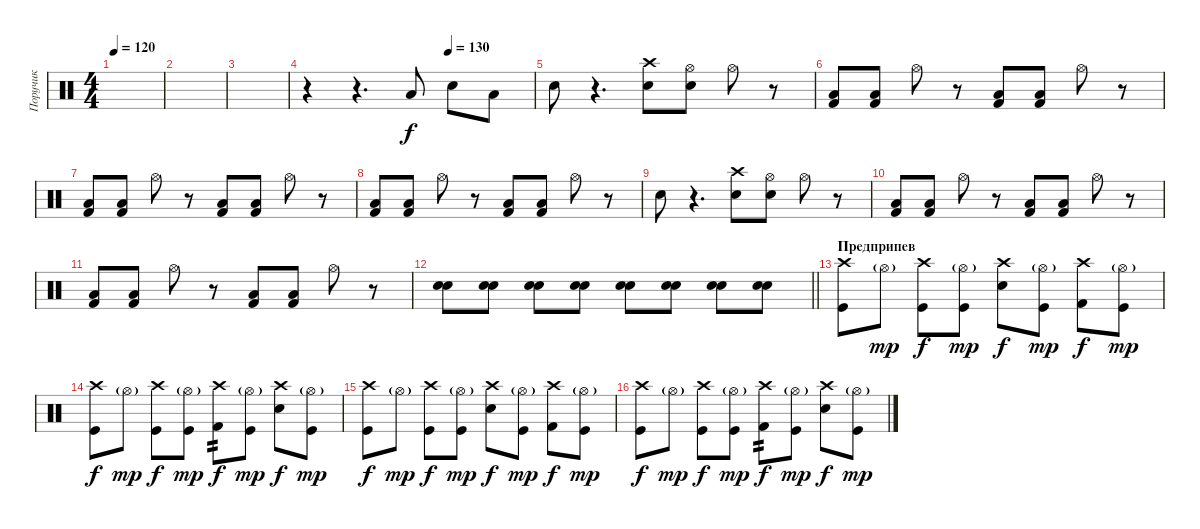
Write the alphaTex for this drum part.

\track ("Поручик" "Поручик") {instrument percussion}
\staff {score}
\articulation defaults
\ts (4 4)
\tempo 120
\clef neutral
\ks c
|
|
|
\tempo (130 0.625)
r.4 r.4{d} "Low Floor Tom (hit)".8 "Snare (hit) 2".8 "Low Floor Tom (hit)".8 |
"Snare (hit) 2".8 r.4{d} ("Snare (hit) 2" "Crash high (hit)").8 ("Snare (hit) 2" "Hi-Hat (open)").8 "Hi-Hat (open)".8 r.8 |
("Low Floor Tom (hit)" "Kick (hit) 2").8 ("Low Floor Tom (hit)" "Kick (hit) 2").8 "Hi-Hat (open)".8 r.8 ("Low Floor Tom (hit)" "Kick (hit) 2").8 ("Low Floor Tom (hit)" "Kick (hit) 2").8 "Hi-Hat (open)".8 r.8 |
("Low Floor Tom (hit)" "Kick (hit) 2").8 ("Low Floor Tom (hit)" "Kick (hit) 2").8 "Hi-Hat (open)".8 r.8 ("Low Floor Tom (hit)" "Kick (hit) 2").8 ("Low Floor Tom (hit)" "Kick (hit) 2").8 "Hi-Hat (open)".8 r.8 |
("Low Floor Tom (hit)" "Kick (hit) 2").8 ("Low Floor Tom (hit)" "Kick (hit) 2").8 "Hi-Hat (open)".8 r.8 ("Low Floor Tom (hit)" "Kick (hit) 2").8 ("Low Floor Tom (hit)" "Kick (hit) 2").8 "Hi-Hat (open)".8 r.8 |
"Snare (hit) 2".8 r.4{d} ("Snare (hit) 2" "Crash high (hit)").8 ("Snare (hit) 2" "Hi-Hat (open)").8 "Hi-Hat (open)".8 r.8 |
("Low Floor Tom (hit)" "Kick (hit) 2").8 ("Low Floor Tom (hit)" "Kick (hit) 2").8 "Hi-Hat (open)".8 r.8 ("Low Floor Tom (hit)" "Kick (hit) 2").8 ("Low Floor Tom (hit)" "Kick (hit) 2").8 "Hi-Hat (open)".8 r.8 |
("Low Floor Tom (hit)" "Kick (hit) 2").8 ("Low Floor Tom (hit)" "Kick (hit) 2").8 "Hi-Hat (open)".8 r.8 ("Low Floor Tom (hit)" "Kick (hit) 2").8 ("Low Floor Tom (hit)" "Kick (hit) 2").8 "Hi-Hat (open)".8 r.8 |
\barLineRight lightlight
("Snare (hit) 2" "Snare (hit) 2").8 ("Snare (hit) 2" "Snare (hit) 2").8 ("Snare (hit) 2" "Snare (hit) 2").8 ("Snare (hit) 2" "Snare (hit) 2").8 ("Snare (hit) 2" "Snare (hit) 2").8 ("Snare (hit) 2" "Snare (hit) 2").8 ("Snare (hit) 2" "Snare (hit) 2").8 ("Snare (hit) 2" "Snare (hit) 2").8 |
\section ("" "Предприпев")
("Crash high (hit)" "Kick (hit)").8 "Hi-Hat (open)"{g}.8{dy mp} ("Crash high (hit)" "Kick (hit)").8{dy f} ("Hi-Hat (open)"{g} "Kick (hit)").8{dy mp} ("Electric Snare (hit)" "Crash high (hit)").8{dy f} ("Hi-Hat (open)"{g} "Kick (hit)").8{dy mp} ("Crash high (hit)" "Kick (hit) 2").8{dy f} ("Hi-Hat (open)"{g} "Kick (hit)").8{dy mp} |
("Crash high (hit)" "Kick (hit)").8{dy f} "Hi-Hat (open)"{g}.8{dy mp} ("Crash high (hit)" "Kick (hit)").8{dy f} ("Hi-Hat (open)"{g} "Kick (hit)").8{dy mp} ("Kick (hit) 2" "Crash high (hit)").8{tp 2 dy f} ("Hi-Hat (open)"{g} "Kick (hit)").8{dy mp} ("Crash high (hit)" "Electric Snare (hit)").8{dy f} ("Hi-Hat (open)"{g} "Kick (hit)").8{dy mp} |
("Crash high (hit)" "Kick (hit)").8{dy f} "Hi-Hat (open)"{g}.8{dy mp} ("Crash high (hit)" "Kick (hit)").8{dy f} ("Hi-Hat (open)"{g} "Kick (hit)").8{dy mp} ("Electric Snare (hit)" "Crash high (hit)").8{dy f} ("Hi-Hat (open)"{g} "Kick (hit)").8{dy mp} ("Crash high (hit)" "Kick (hit) 2").8{dy f} ("Hi-Hat (open)"{g} "Kick (hit)").8{dy mp} |
("Crash high (hit)" "Kick (hit)").8{dy f} "Hi-Hat (open)"{g}.8{dy mp} ("Crash high (hit)" "Kick (hit)").8{dy f} ("Hi-Hat (open)"{g} "Kick (hit)").8{dy mp} ("Kick (hit) 2" "Crash high (hit)").8{tp 2 dy f} ("Hi-Hat (open)"{g} "Kick (hit)").8{dy mp} ("Crash high (hit)" "Electric Snare (hit)").8{dy f} ("Hi-Hat (open)"{g} "Kick (hit)").8{dy mp}
